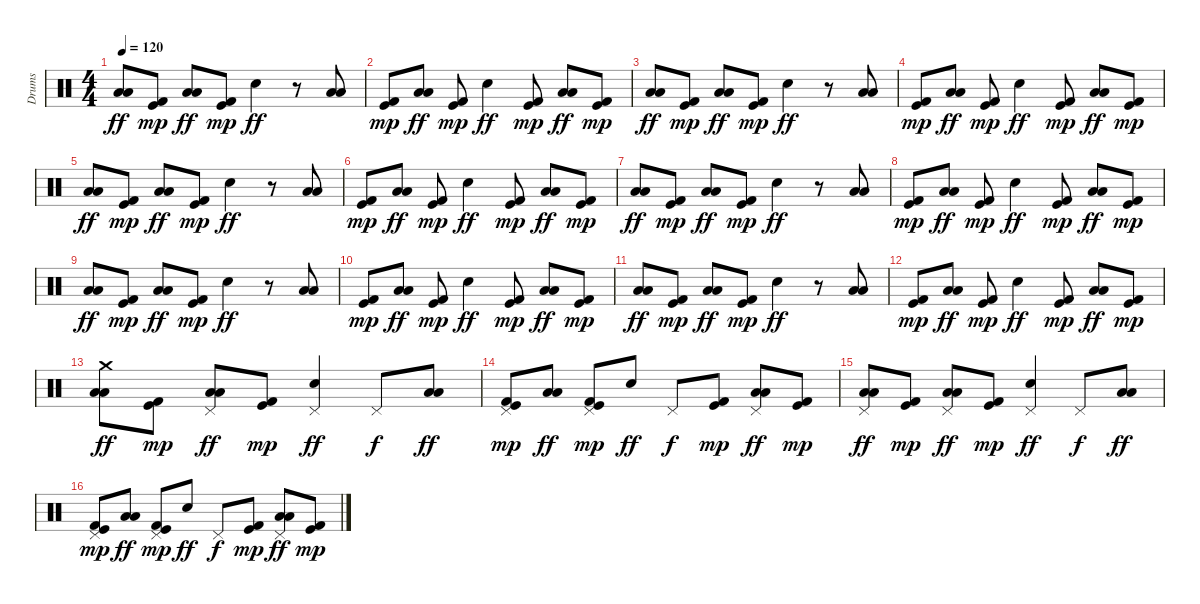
\track ("Drums" "Drums") {instrument percussion}
\staff {score}
\articulation defaults
\ts (4 4)
\tempo 120
\clef neutral
\ks c
("Low Tom (hit)" "Low Floor Tom (hit)").8{dy ff} ("Kick (hit)" "Kick (hit) 2").8{dy mp} ("Low Tom (hit)" "Low Floor Tom (hit)").8{dy ff} ("Kick (hit)" "Kick (hit) 2").8{dy mp} "Snare (hit) 2".4{dy ff} r.8 ("Low Tom (hit)" "Low Floor Tom (hit)").8 |
("Kick (hit)" "Kick (hit) 2").8{dy mp} ("Low Tom (hit)" "Low Floor Tom (hit)").8{dy ff} ("Kick (hit)" "Kick (hit) 2").8{dy mp} "Snare (hit) 2".4{dy ff} ("Kick (hit)" "Kick (hit) 2").8{dy mp} ("Low Tom (hit)" "Low Floor Tom (hit)").8{dy ff} ("Kick (hit)" "Kick (hit) 2").8{dy mp} |
("Low Tom (hit)" "Low Floor Tom (hit)").8{dy ff} ("Kick (hit)" "Kick (hit) 2").8{dy mp} ("Low Tom (hit)" "Low Floor Tom (hit)").8{dy ff} ("Kick (hit)" "Kick (hit) 2").8{dy mp} "Snare (hit) 2".4{dy ff} r.8 ("Low Tom (hit)" "Low Floor Tom (hit)").8 |
("Kick (hit)" "Kick (hit) 2").8{dy mp} ("Low Tom (hit)" "Low Floor Tom (hit)").8{dy ff} ("Kick (hit)" "Kick (hit) 2").8{dy mp} "Snare (hit) 2".4{dy ff} ("Kick (hit)" "Kick (hit) 2").8{dy mp} ("Low Tom (hit)" "Low Floor Tom (hit)").8{dy ff} ("Kick (hit)" "Kick (hit) 2").8{dy mp} |
("Low Tom (hit)" "Low Floor Tom (hit)").8{dy ff} ("Kick (hit)" "Kick (hit) 2").8{dy mp} ("Low Tom (hit)" "Low Floor Tom (hit)").8{dy ff} ("Kick (hit)" "Kick (hit) 2").8{dy mp} "Snare (hit) 2".4{dy ff} r.8 ("Low Tom (hit)" "Low Floor Tom (hit)").8 |
("Kick (hit)" "Kick (hit) 2").8{dy mp} ("Low Tom (hit)" "Low Floor Tom (hit)").8{dy ff} ("Kick (hit)" "Kick (hit) 2").8{dy mp} "Snare (hit) 2".4{dy ff} ("Kick (hit)" "Kick (hit) 2").8{dy mp} ("Low Tom (hit)" "Low Floor Tom (hit)").8{dy ff} ("Kick (hit)" "Kick (hit) 2").8{dy mp} |
("Low Tom (hit)" "Low Floor Tom (hit)").8{dy ff} ("Kick (hit)" "Kick (hit) 2").8{dy mp} ("Low Tom (hit)" "Low Floor Tom (hit)").8{dy ff} ("Kick (hit)" "Kick (hit) 2").8{dy mp} "Snare (hit) 2".4{dy ff} r.8 ("Low Tom (hit)" "Low Floor Tom (hit)").8 |
("Kick (hit)" "Kick (hit) 2").8{dy mp} ("Low Tom (hit)" "Low Floor Tom (hit)").8{dy ff} ("Kick (hit)" "Kick (hit) 2").8{dy mp} "Snare (hit) 2".4{dy ff} ("Kick (hit)" "Kick (hit) 2").8{dy mp} ("Low Tom (hit)" "Low Floor Tom (hit)").8{dy ff} ("Kick (hit)" "Kick (hit) 2").8{dy mp} |
("Low Tom (hit)" "Low Floor Tom (hit)").8{dy ff} ("Kick (hit)" "Kick (hit) 2").8{dy mp} ("Low Tom (hit)" "Low Floor Tom (hit)").8{dy ff} ("Kick (hit)" "Kick (hit) 2").8{dy mp} "Snare (hit) 2".4{dy ff} r.8 ("Low Tom (hit)" "Low Floor Tom (hit)").8 |
("Kick (hit)" "Kick (hit) 2").8{dy mp} ("Low Tom (hit)" "Low Floor Tom (hit)").8{dy ff} ("Kick (hit)" "Kick (hit) 2").8{dy mp} "Snare (hit) 2".4{dy ff} ("Kick (hit)" "Kick (hit) 2").8{dy mp} ("Low Tom (hit)" "Low Floor Tom (hit)").8{dy ff} ("Kick (hit)" "Kick (hit) 2").8{dy mp} |
("Low Tom (hit)" "Low Floor Tom (hit)").8{dy ff} ("Kick (hit)" "Kick (hit) 2").8{dy mp} ("Low Tom (hit)" "Low Floor Tom (hit)").8{dy ff} ("Kick (hit)" "Kick (hit) 2").8{dy mp} "Snare (hit) 2".4{dy ff} r.8 ("Low Tom (hit)" "Low Floor Tom (hit)").8 |
("Kick (hit)" "Kick (hit) 2").8{dy mp} ("Low Tom (hit)" "Low Floor Tom (hit)").8{dy ff} ("Kick (hit)" "Kick (hit) 2").8{dy mp} "Snare (hit) 2".4{dy ff} ("Kick (hit)" "Kick (hit) 2").8{dy mp} ("Low Tom (hit)" "Low Floor Tom (hit)").8{dy ff} ("Kick (hit)" "Kick (hit) 2").8{dy mp} |
("Low Tom (hit)" "Low Floor Tom (hit)" "Crash medium (hit)").8{dy ff} ("Kick (hit)" "Kick (hit) 2").8{dy mp} ("Low Tom (hit)" "Low Floor Tom (hit)" "Pedal Hi-Hat (hit)").8{dy ff} ("Kick (hit)" "Kick (hit) 2").8{dy mp} ("Snare (hit) 2" "Pedal Hi-Hat (hit)").4{dy ff} "Pedal Hi-Hat (hit)".8{dy f} ("Low Tom (hit)" "Low Floor Tom (hit)").8{dy ff} |
("Kick (hit)" "Kick (hit) 2" "Pedal Hi-Hat (hit)").8{dy mp} ("Low Tom (hit)" "Low Floor Tom (hit)").8{dy ff} ("Kick (hit)" "Kick (hit) 2" "Pedal Hi-Hat (hit)").8{dy mp} "Snare (hit) 2".8{dy ff} "Pedal Hi-Hat (hit)".8{dy f} ("Kick (hit)" "Kick (hit) 2").8{dy mp} ("Low Tom (hit)" "Low Floor Tom (hit)" "Pedal Hi-Hat (hit)").8{dy ff} ("Kick (hit)" "Kick (hit) 2").8{dy mp} |
("Low Tom (hit)" "Low Floor Tom (hit)" "Pedal Hi-Hat (hit)").8{dy ff} ("Kick (hit)" "Kick (hit) 2").8{dy mp} ("Low Tom (hit)" "Low Floor Tom (hit)" "Pedal Hi-Hat (hit)").8{dy ff} ("Kick (hit)" "Kick (hit) 2").8{dy mp} ("Snare (hit) 2" "Pedal Hi-Hat (hit)").4{dy ff} "Pedal Hi-Hat (hit)".8{dy f} ("Low Tom (hit)" "Low Floor Tom (hit)").8{dy ff} |
("Kick (hit)" "Kick (hit) 2" "Pedal Hi-Hat (hit)").8{dy mp} ("Low Tom (hit)" "Low Floor Tom (hit)").8{dy ff} ("Kick (hit)" "Kick (hit) 2" "Pedal Hi-Hat (hit)").8{dy mp} "Snare (hit) 2".8{dy ff} "Pedal Hi-Hat (hit)".8{dy f} ("Kick (hit)" "Kick (hit) 2").8{dy mp} ("Low Tom (hit)" "Low Floor Tom (hit)" "Pedal Hi-Hat (hit)").8{dy ff} ("Kick (hit)" "Kick (hit) 2").8{dy mp}
